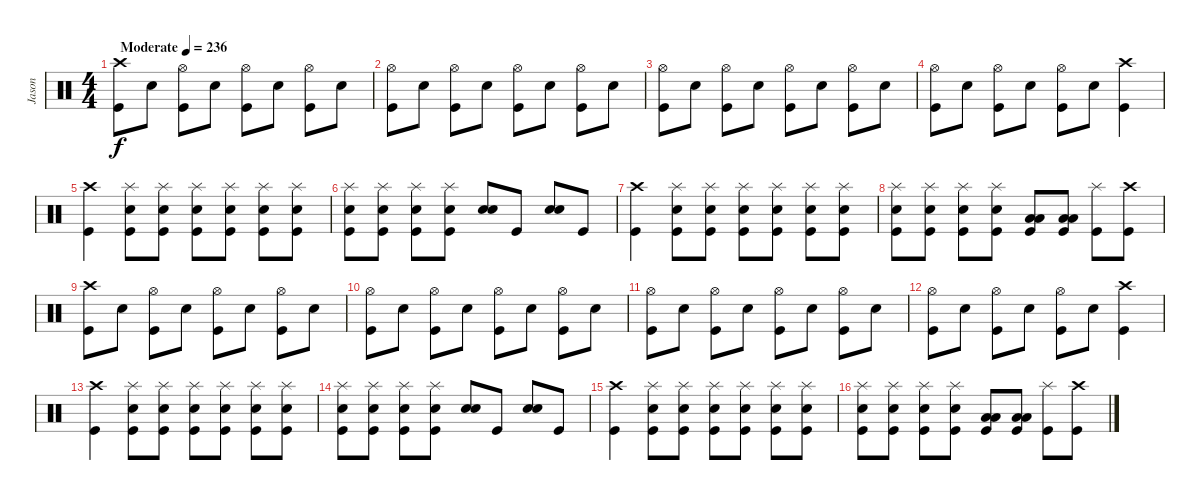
\track ("Jason" "Jason") {instrument percussion}
\staff {score}
\articulation defaults
\ts (4 4)
\tempo (236 "Moderate")
\clef neutral
\ks c
("Crash high (hit)" "Kick (hit)").8{dy f} "Electric Snare (hit)".8 ("Hi-Hat (open)" "Kick (hit)").8 "Electric Snare (hit)".8 ("Hi-Hat (open)" "Kick (hit)").8 "Electric Snare (hit)".8 ("Hi-Hat (open)" "Kick (hit)").8 "Electric Snare (hit)".8 |
("Hi-Hat (open)" "Kick (hit)").8 "Electric Snare (hit)".8 ("Hi-Hat (open)" "Kick (hit)").8 "Electric Snare (hit)".8 ("Hi-Hat (open)" "Kick (hit)").8 "Electric Snare (hit)".8 ("Hi-Hat (open)" "Kick (hit)").8 "Electric Snare (hit)".8 |
("Hi-Hat (open)" "Kick (hit)").8 "Electric Snare (hit)".8 ("Hi-Hat (open)" "Kick (hit)").8 "Electric Snare (hit)".8 ("Hi-Hat (open)" "Kick (hit)").8 "Electric Snare (hit)".8 ("Hi-Hat (open)" "Kick (hit)").8 "Electric Snare (hit)".8 |
("Hi-Hat (open)" "Kick (hit)").8 "Electric Snare (hit)".8 ("Hi-Hat (open)" "Kick (hit)").8 "Electric Snare (hit)".8 ("Hi-Hat (open)" "Kick (hit)").8 "Electric Snare (hit)".8 ("Crash high (hit)" "Kick (hit)").4 |
("Crash high (hit)" "Kick (hit)").4 ("Splash (hit)" "Electric Snare (hit)" "Kick (hit)").8 ("Splash (hit)" "Electric Snare (hit)" "Kick (hit)").8 ("Splash (hit)" "Electric Snare (hit)" "Kick (hit)").8 ("Splash (hit)" "Electric Snare (hit)" "Kick (hit)").8 ("Splash (hit)" "Electric Snare (hit)" "Kick (hit)").8 ("Splash (hit)" "Electric Snare (hit)" "Kick (hit)").8 |
("Splash (hit)" "Electric Snare (hit)" "Kick (hit)").8 ("Splash (hit)" "Electric Snare (hit)" "Kick (hit)").8 ("Splash (hit)" "Electric Snare (hit)" "Kick (hit)").8 ("Splash (hit)" "Electric Snare (hit)" "Kick (hit)").8 ("Electric Snare (hit)" "Electric Snare (hit)").8 "Kick (hit)".8 ("Electric Snare (hit)" "Electric Snare (hit)").8 "Kick (hit)".8 |
("Crash high (hit)" "Kick (hit)").4 ("Splash (hit)" "Electric Snare (hit)" "Kick (hit)").8 ("Splash (hit)" "Electric Snare (hit)" "Kick (hit)").8 ("Splash (hit)" "Electric Snare (hit)" "Kick (hit)").8 ("Splash (hit)" "Electric Snare (hit)" "Kick (hit)").8 ("Splash (hit)" "Electric Snare (hit)" "Kick (hit)").8 ("Splash (hit)" "Electric Snare (hit)" "Kick (hit)").8 |
("Splash (hit)" "Electric Snare (hit)" "Kick (hit)").8 ("Splash (hit)" "Electric Snare (hit)" "Kick (hit)").8 ("Splash (hit)" "Electric Snare (hit)" "Kick (hit)").8 ("Splash (hit)" "Electric Snare (hit)" "Kick (hit)").8 ("Low Floor Tom (hit)" "Low Floor Tom (hit)" "Kick (hit)").8 ("Low Floor Tom (hit)" "Low Floor Tom (hit)" "Kick (hit)").8 ("Splash (hit)" "Kick (hit)").8 ("Crash high (hit)" "Kick (hit)").8 |
("Crash high (hit)" "Kick (hit)").8 "Electric Snare (hit)".8 ("Hi-Hat (open)" "Kick (hit)").8 "Electric Snare (hit)".8 ("Hi-Hat (open)" "Kick (hit)").8 "Electric Snare (hit)".8 ("Hi-Hat (open)" "Kick (hit)").8 "Electric Snare (hit)".8 |
("Hi-Hat (open)" "Kick (hit)").8 "Electric Snare (hit)".8 ("Hi-Hat (open)" "Kick (hit)").8 "Electric Snare (hit)".8 ("Hi-Hat (open)" "Kick (hit)").8 "Electric Snare (hit)".8 ("Hi-Hat (open)" "Kick (hit)").8 "Electric Snare (hit)".8 |
("Hi-Hat (open)" "Kick (hit)").8 "Electric Snare (hit)".8 ("Hi-Hat (open)" "Kick (hit)").8 "Electric Snare (hit)".8 ("Hi-Hat (open)" "Kick (hit)").8 "Electric Snare (hit)".8 ("Hi-Hat (open)" "Kick (hit)").8 "Electric Snare (hit)".8 |
("Hi-Hat (open)" "Kick (hit)").8 "Electric Snare (hit)".8 ("Hi-Hat (open)" "Kick (hit)").8 "Electric Snare (hit)".8 ("Hi-Hat (open)" "Kick (hit)").8 "Electric Snare (hit)".8 ("Crash high (hit)" "Kick (hit)").4 |
("Crash high (hit)" "Kick (hit)").4 ("Splash (hit)" "Electric Snare (hit)" "Kick (hit)").8 ("Splash (hit)" "Electric Snare (hit)" "Kick (hit)").8 ("Splash (hit)" "Electric Snare (hit)" "Kick (hit)").8 ("Splash (hit)" "Electric Snare (hit)" "Kick (hit)").8 ("Splash (hit)" "Electric Snare (hit)" "Kick (hit)").8 ("Splash (hit)" "Electric Snare (hit)" "Kick (hit)").8 |
("Splash (hit)" "Electric Snare (hit)" "Kick (hit)").8 ("Splash (hit)" "Electric Snare (hit)" "Kick (hit)").8 ("Splash (hit)" "Electric Snare (hit)" "Kick (hit)").8 ("Splash (hit)" "Electric Snare (hit)" "Kick (hit)").8 ("Electric Snare (hit)" "Electric Snare (hit)").8 "Kick (hit)".8 ("Electric Snare (hit)" "Electric Snare (hit)").8 "Kick (hit)".8 |
("Crash high (hit)" "Kick (hit)").4 ("Splash (hit)" "Electric Snare (hit)" "Kick (hit)").8 ("Splash (hit)" "Electric Snare (hit)" "Kick (hit)").8 ("Splash (hit)" "Electric Snare (hit)" "Kick (hit)").8 ("Splash (hit)" "Electric Snare (hit)" "Kick (hit)").8 ("Splash (hit)" "Electric Snare (hit)" "Kick (hit)").8 ("Splash (hit)" "Electric Snare (hit)" "Kick (hit)").8 |
("Splash (hit)" "Electric Snare (hit)" "Kick (hit)").8 ("Splash (hit)" "Electric Snare (hit)" "Kick (hit)").8 ("Splash (hit)" "Electric Snare (hit)" "Kick (hit)").8 ("Splash (hit)" "Electric Snare (hit)" "Kick (hit)").8 ("Low Floor Tom (hit)" "Low Floor Tom (hit)" "Kick (hit)").8 ("Low Floor Tom (hit)" "Low Floor Tom (hit)" "Kick (hit)").8 ("Splash (hit)" "Kick (hit)").8 ("Crash high (hit)" "Kick (hit)").8
